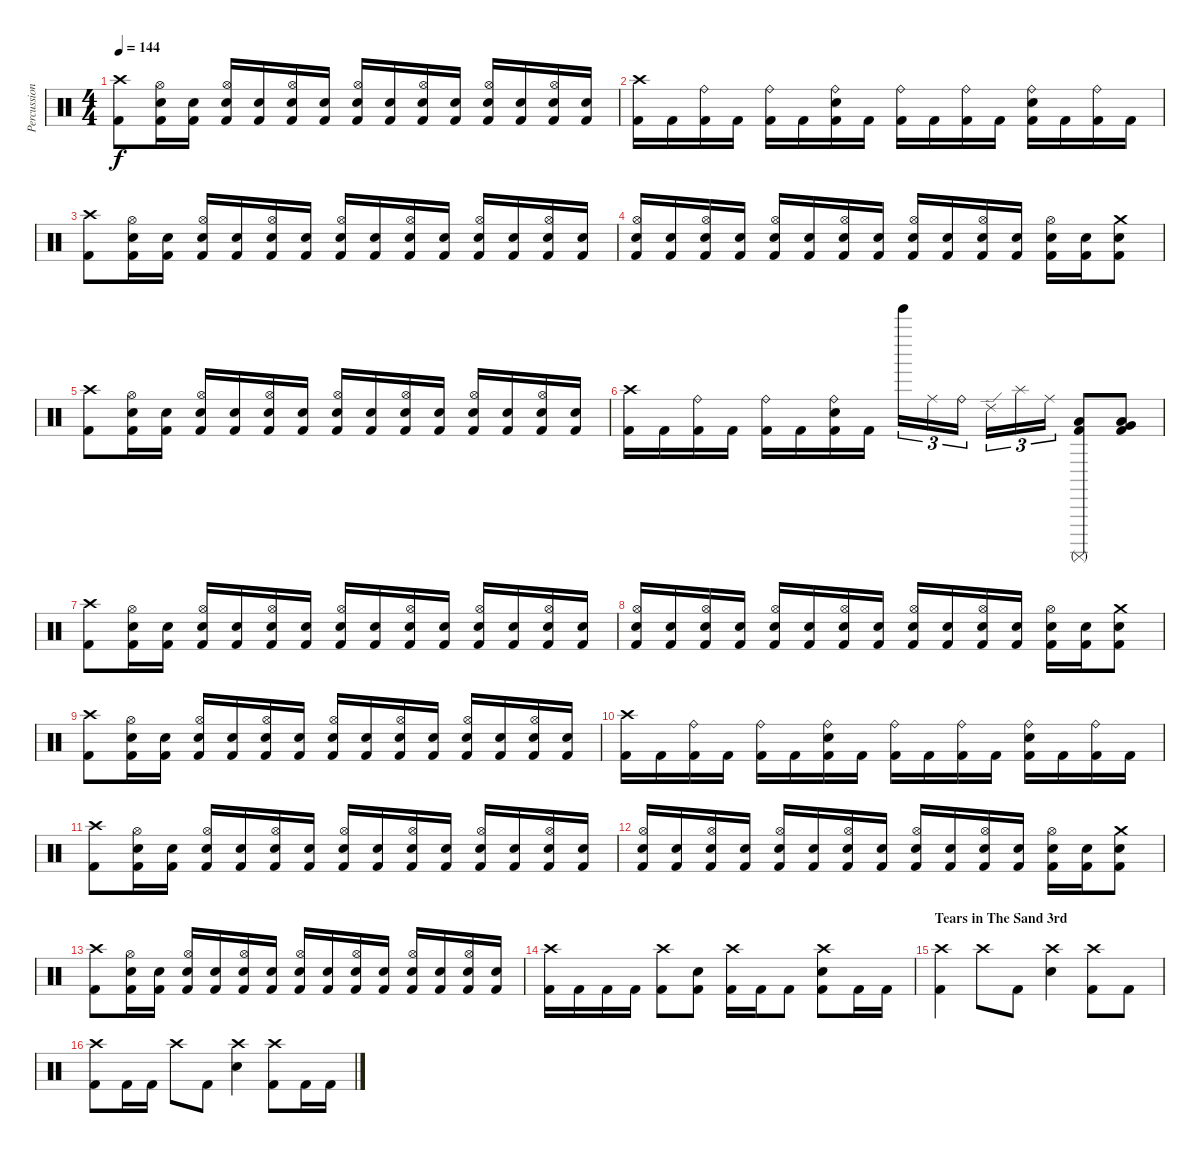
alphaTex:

\track ("Percussion" "Percussion") {instrument percussion}
\staff {score}
\articulation defaults
\ts (4 4)
\tempo 144
\clef neutral
\ks c
("Crash high (hit)" "Kick (hit) 2").8{dy f} ("Hi-Hat (open)" "Electric Snare (hit)" "Kick (hit) 2").16 ("Electric Snare (hit)" "Kick (hit) 2").16 ("Hi-Hat (open)" "Electric Snare (hit)" "Kick (hit) 2").16 ("Electric Snare (hit)" "Kick (hit) 2").16 ("Hi-Hat (open)" "Electric Snare (hit)" "Kick (hit) 2").16 ("Electric Snare (hit)" "Kick (hit) 2").16 ("Hi-Hat (open)" "Electric Snare (hit)" "Kick (hit) 2").16 ("Electric Snare (hit)" "Kick (hit) 2").16 ("Hi-Hat (open)" "Electric Snare (hit)" "Kick (hit) 2").16 ("Electric Snare (hit)" "Kick (hit) 2").16 ("Hi-Hat (open)" "Electric Snare (hit)" "Kick (hit) 2").16 ("Electric Snare (hit)" "Kick (hit) 2").16 ("Hi-Hat (open)" "Electric Snare (hit)" "Kick (hit) 2").16 ("Electric Snare (hit)" "Kick (hit) 2").16 |
("Crash high (hit)" "Kick (hit) 2").16 "Kick (hit) 2".16 ("Ride (bell)" "Kick (hit) 2").16 "Kick (hit) 2".16 ("Ride (bell)" "Kick (hit) 2").16 "Kick (hit) 2".16 ("Ride (bell)" "Electric Snare (hit)" "Kick (hit) 2").16 "Kick (hit) 2".16 ("Ride (bell)" "Kick (hit) 2").16 "Kick (hit) 2".16 ("Ride (bell)" "Kick (hit) 2").16 "Kick (hit) 2".16 ("Ride (bell)" "Electric Snare (hit)" "Kick (hit) 2").16 "Kick (hit) 2".16 ("Ride (bell)" "Kick (hit) 2").16 "Kick (hit) 2".16 |
("Crash high (hit)" "Kick (hit) 2").8 ("Hi-Hat (open)" "Electric Snare (hit)" "Kick (hit) 2").16 ("Electric Snare (hit)" "Kick (hit) 2").16 ("Hi-Hat (open)" "Electric Snare (hit)" "Kick (hit) 2").16 ("Electric Snare (hit)" "Kick (hit) 2").16 ("Hi-Hat (open)" "Electric Snare (hit)" "Kick (hit) 2").16 ("Electric Snare (hit)" "Kick (hit) 2").16 ("Hi-Hat (open)" "Electric Snare (hit)" "Kick (hit) 2").16 ("Electric Snare (hit)" "Kick (hit) 2").16 ("Hi-Hat (open)" "Electric Snare (hit)" "Kick (hit) 2").16 ("Electric Snare (hit)" "Kick (hit) 2").16 ("Hi-Hat (open)" "Electric Snare (hit)" "Kick (hit) 2").16 ("Electric Snare (hit)" "Kick (hit) 2").16 ("Hi-Hat (open)" "Electric Snare (hit)" "Kick (hit) 2").16 ("Electric Snare (hit)" "Kick (hit) 2").16 |
("Hi-Hat (open)" "Electric Snare (hit)" "Kick (hit) 2").16 ("Electric Snare (hit)" "Kick (hit) 2").16 ("Hi-Hat (open)" "Electric Snare (hit)" "Kick (hit) 2").16 ("Electric Snare (hit)" "Kick (hit) 2").16 ("Hi-Hat (open)" "Electric Snare (hit)" "Kick (hit) 2").16 ("Electric Snare (hit)" "Kick (hit) 2").16 ("Hi-Hat (open)" "Electric Snare (hit)" "Kick (hit) 2").16 ("Electric Snare (hit)" "Kick (hit) 2").16 ("Hi-Hat (open)" "Electric Snare (hit)" "Kick (hit) 2").16 ("Electric Snare (hit)" "Kick (hit) 2").16 ("Hi-Hat (open)" "Electric Snare (hit)" "Kick (hit) 2").16 ("Electric Snare (hit)" "Kick (hit) 2").16 ("Hi-Hat (open)" "Electric Snare (hit)" "Kick (hit) 2").16 ("Electric Snare (hit)" "Kick (hit) 2").16 ("Crash medium (hit)" "Electric Snare (hit)" "Kick (hit) 2").8 |
("Crash high (hit)" "Kick (hit) 2").8 ("Hi-Hat (open)" "Electric Snare (hit)" "Kick (hit) 2").16 ("Electric Snare (hit)" "Kick (hit) 2").16 ("Hi-Hat (open)" "Electric Snare (hit)" "Kick (hit) 2").16 ("Electric Snare (hit)" "Kick (hit) 2").16 ("Hi-Hat (open)" "Electric Snare (hit)" "Kick (hit) 2").16 ("Electric Snare (hit)" "Kick (hit) 2").16 ("Hi-Hat (open)" "Electric Snare (hit)" "Kick (hit) 2").16 ("Electric Snare (hit)" "Kick (hit) 2").16 ("Hi-Hat (open)" "Electric Snare (hit)" "Kick (hit) 2").16 ("Electric Snare (hit)" "Kick (hit) 2").16 ("Hi-Hat (open)" "Electric Snare (hit)" "Kick (hit) 2").16 ("Electric Snare (hit)" "Kick (hit) 2").16 ("Hi-Hat (open)" "Electric Snare (hit)" "Kick (hit) 2").16 ("Electric Snare (hit)" "Kick (hit) 2").16 |
("Crash high (hit)" "Kick (hit) 2").16 "Kick (hit) 2".16 ("Ride (bell)" "Kick (hit) 2").16 "Kick (hit) 2".16 ("Ride (bell)" "Kick (hit) 2").16 "Kick (hit) 2".16 ("Ride (bell)" "Electric Snare (hit)" "Kick (hit) 2").16 "Kick (hit) 2".16 "Tinkle Bell (hit)".16{tu (3 2)} "Ride (middle)".16{tu (3 2)} "Ride (bell)".16{tu (3 2)} "Ride (edge) 2".16{tu (3 2)} "Splash (hit)".16{tu (3 2)} "Ride (middle)".16{tu (3 2)} ("Low Tom (hit)" "Surdo (mute)" "Kick (hit) 2").8 ("Very Low Tom (hit)" "Low Tom (hit)" "Kick (hit) 2").8 |
("Crash high (hit)" "Kick (hit) 2").8 ("Hi-Hat (open)" "Electric Snare (hit)" "Kick (hit) 2").16 ("Electric Snare (hit)" "Kick (hit) 2").16 ("Hi-Hat (open)" "Electric Snare (hit)" "Kick (hit) 2").16 ("Electric Snare (hit)" "Kick (hit) 2").16 ("Hi-Hat (open)" "Electric Snare (hit)" "Kick (hit) 2").16 ("Electric Snare (hit)" "Kick (hit) 2").16 ("Hi-Hat (open)" "Electric Snare (hit)" "Kick (hit) 2").16 ("Electric Snare (hit)" "Kick (hit) 2").16 ("Hi-Hat (open)" "Electric Snare (hit)" "Kick (hit) 2").16 ("Electric Snare (hit)" "Kick (hit) 2").16 ("Hi-Hat (open)" "Electric Snare (hit)" "Kick (hit) 2").16 ("Electric Snare (hit)" "Kick (hit) 2").16 ("Hi-Hat (open)" "Electric Snare (hit)" "Kick (hit) 2").16 ("Electric Snare (hit)" "Kick (hit) 2").16 |
("Hi-Hat (open)" "Electric Snare (hit)" "Kick (hit) 2").16 ("Electric Snare (hit)" "Kick (hit) 2").16 ("Hi-Hat (open)" "Electric Snare (hit)" "Kick (hit) 2").16 ("Electric Snare (hit)" "Kick (hit) 2").16 ("Hi-Hat (open)" "Electric Snare (hit)" "Kick (hit) 2").16 ("Electric Snare (hit)" "Kick (hit) 2").16 ("Hi-Hat (open)" "Electric Snare (hit)" "Kick (hit) 2").16 ("Electric Snare (hit)" "Kick (hit) 2").16 ("Hi-Hat (open)" "Electric Snare (hit)" "Kick (hit) 2").16 ("Electric Snare (hit)" "Kick (hit) 2").16 ("Hi-Hat (open)" "Electric Snare (hit)" "Kick (hit) 2").16 ("Electric Snare (hit)" "Kick (hit) 2").16 ("Hi-Hat (open)" "Electric Snare (hit)" "Kick (hit) 2").16 ("Electric Snare (hit)" "Kick (hit) 2").16 ("Crash medium (hit)" "Electric Snare (hit)" "Kick (hit) 2").8 |
("Crash high (hit)" "Kick (hit) 2").8 ("Hi-Hat (open)" "Electric Snare (hit)" "Kick (hit) 2").16 ("Electric Snare (hit)" "Kick (hit) 2").16 ("Hi-Hat (open)" "Electric Snare (hit)" "Kick (hit) 2").16 ("Electric Snare (hit)" "Kick (hit) 2").16 ("Hi-Hat (open)" "Electric Snare (hit)" "Kick (hit) 2").16 ("Electric Snare (hit)" "Kick (hit) 2").16 ("Hi-Hat (open)" "Electric Snare (hit)" "Kick (hit) 2").16 ("Electric Snare (hit)" "Kick (hit) 2").16 ("Hi-Hat (open)" "Electric Snare (hit)" "Kick (hit) 2").16 ("Electric Snare (hit)" "Kick (hit) 2").16 ("Hi-Hat (open)" "Electric Snare (hit)" "Kick (hit) 2").16 ("Electric Snare (hit)" "Kick (hit) 2").16 ("Hi-Hat (open)" "Electric Snare (hit)" "Kick (hit) 2").16 ("Electric Snare (hit)" "Kick (hit) 2").16 |
("Crash high (hit)" "Kick (hit) 2").16 "Kick (hit) 2".16 ("Ride (bell)" "Kick (hit) 2").16 "Kick (hit) 2".16 ("Ride (bell)" "Kick (hit) 2").16 "Kick (hit) 2".16 ("Ride (bell)" "Electric Snare (hit)" "Kick (hit) 2").16 "Kick (hit) 2".16 ("Ride (bell)" "Kick (hit) 2").16 "Kick (hit) 2".16 ("Ride (bell)" "Kick (hit) 2").16 "Kick (hit) 2".16 ("Ride (bell)" "Electric Snare (hit)" "Kick (hit) 2").16 "Kick (hit) 2".16 ("Ride (bell)" "Kick (hit) 2").16 "Kick (hit) 2".16 |
("Crash high (hit)" "Kick (hit) 2").8 ("Hi-Hat (open)" "Electric Snare (hit)" "Kick (hit) 2").16 ("Electric Snare (hit)" "Kick (hit) 2").16 ("Hi-Hat (open)" "Electric Snare (hit)" "Kick (hit) 2").16 ("Electric Snare (hit)" "Kick (hit) 2").16 ("Hi-Hat (open)" "Electric Snare (hit)" "Kick (hit) 2").16 ("Electric Snare (hit)" "Kick (hit) 2").16 ("Hi-Hat (open)" "Electric Snare (hit)" "Kick (hit) 2").16 ("Electric Snare (hit)" "Kick (hit) 2").16 ("Hi-Hat (open)" "Electric Snare (hit)" "Kick (hit) 2").16 ("Electric Snare (hit)" "Kick (hit) 2").16 ("Hi-Hat (open)" "Electric Snare (hit)" "Kick (hit) 2").16 ("Electric Snare (hit)" "Kick (hit) 2").16 ("Hi-Hat (open)" "Electric Snare (hit)" "Kick (hit) 2").16 ("Electric Snare (hit)" "Kick (hit) 2").16 |
("Hi-Hat (open)" "Electric Snare (hit)" "Kick (hit) 2").16 ("Electric Snare (hit)" "Kick (hit) 2").16 ("Hi-Hat (open)" "Electric Snare (hit)" "Kick (hit) 2").16 ("Electric Snare (hit)" "Kick (hit) 2").16 ("Hi-Hat (open)" "Electric Snare (hit)" "Kick (hit) 2").16 ("Electric Snare (hit)" "Kick (hit) 2").16 ("Hi-Hat (open)" "Electric Snare (hit)" "Kick (hit) 2").16 ("Electric Snare (hit)" "Kick (hit) 2").16 ("Hi-Hat (open)" "Electric Snare (hit)" "Kick (hit) 2").16 ("Electric Snare (hit)" "Kick (hit) 2").16 ("Hi-Hat (open)" "Electric Snare (hit)" "Kick (hit) 2").16 ("Electric Snare (hit)" "Kick (hit) 2").16 ("Hi-Hat (open)" "Electric Snare (hit)" "Kick (hit) 2").16 ("Electric Snare (hit)" "Kick (hit) 2").16 ("Crash medium (hit)" "Electric Snare (hit)" "Kick (hit) 2").8 |
("Crash high (hit)" "Kick (hit) 2").8 ("Hi-Hat (open)" "Electric Snare (hit)" "Kick (hit) 2").16 ("Electric Snare (hit)" "Kick (hit) 2").16 ("Hi-Hat (open)" "Electric Snare (hit)" "Kick (hit) 2").16 ("Electric Snare (hit)" "Kick (hit) 2").16 ("Hi-Hat (open)" "Electric Snare (hit)" "Kick (hit) 2").16 ("Electric Snare (hit)" "Kick (hit) 2").16 ("Hi-Hat (open)" "Electric Snare (hit)" "Kick (hit) 2").16 ("Electric Snare (hit)" "Kick (hit) 2").16 ("Hi-Hat (open)" "Electric Snare (hit)" "Kick (hit) 2").16 ("Electric Snare (hit)" "Kick (hit) 2").16 ("Hi-Hat (open)" "Electric Snare (hit)" "Kick (hit) 2").16 ("Electric Snare (hit)" "Kick (hit) 2").16 ("Hi-Hat (open)" "Electric Snare (hit)" "Kick (hit) 2").16 ("Electric Snare (hit)" "Kick (hit) 2").16 |
("Crash high (hit)" "Kick (hit) 2").16 "Kick (hit) 2".16 "Kick (hit) 2".16 "Kick (hit) 2".16 ("Crash high (hit)" "Kick (hit) 2").8 ("Electric Snare (hit)" "Kick (hit) 2").8 ("Crash high (hit)" "Kick (hit) 2").16 "Kick (hit) 2".16 "Kick (hit) 2".8 ("Crash high (hit)" "Electric Snare (hit)" "Kick (hit) 2").8 "Kick (hit) 2".16 "Kick (hit) 2".16 |
\section ("" "Tears in The Sand 3rd")
("Crash high (hit)" "Kick (hit) 2").4 "Crash high (hit)".8 "Kick (hit) 2".8 ("Crash high (hit)" "Electric Snare (hit)").4 ("Crash high (hit)" "Kick (hit) 2").8 "Kick (hit) 2".8 |
("Crash high (hit)" "Kick (hit) 2").8 "Kick (hit) 2".16 "Kick (hit) 2".16 "Crash high (hit)".8 "Kick (hit) 2".8 ("Crash high (hit)" "Electric Snare (hit)").4 ("Crash high (hit)" "Kick (hit) 2").8 "Kick (hit) 2".16 "Kick (hit) 2".16
